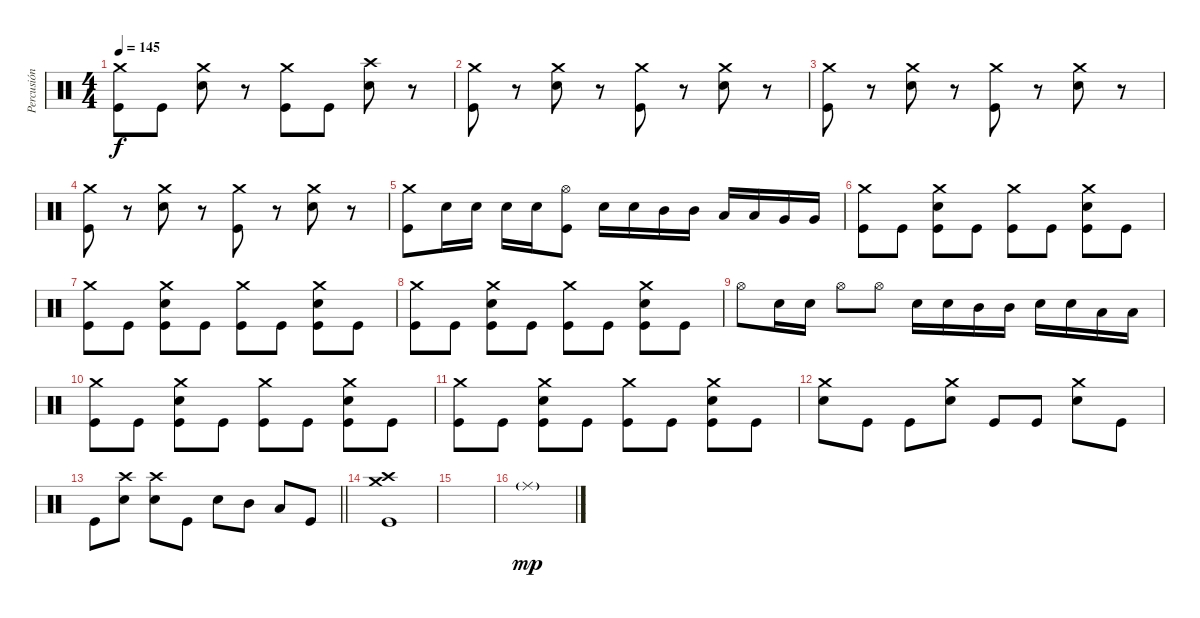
\track ("Percusión" "Percusión") {instrument percussion}
\staff {score}
\articulation defaults
\ts (4 4)
\tempo 145
\clef neutral
\ks c
("Crash medium (hit)" "Kick (hit)").8{dy f} "Kick (hit)".8 ("Crash medium (hit)" "Snare (hit) 2").8 r.8 ("Crash medium (hit)" "Kick (hit)").8 "Kick (hit)".8 ("Crash high (hit)" "Snare (hit) 2").8 r.8 |
("Crash medium (hit)" "Kick (hit)").8 r.8 ("Crash medium (hit)" "Snare (hit) 2").8 r.8 ("Crash medium (hit)" "Kick (hit)").8 r.8 ("Crash medium (hit)" "Snare (hit) 2").8 r.8 |
("Crash medium (hit)" "Kick (hit)").8 r.8 ("Crash medium (hit)" "Snare (hit) 2").8 r.8 ("Crash medium (hit)" "Kick (hit)").8 r.8 ("Crash medium (hit)" "Snare (hit) 2").8 r.8 |
("Crash medium (hit)" "Kick (hit)").8 r.8 ("Crash medium (hit)" "Snare (hit) 2").8 r.8 ("Crash medium (hit)" "Kick (hit)").8 r.8 ("Crash medium (hit)" "Snare (hit) 2").8 r.8 |
("Crash medium (hit)" "Kick (hit)").8 "Snare (hit) 2".16 "Snare (hit) 2".16 "Snare (hit) 2".16 "Snare (hit) 2".16 ("Hi-Hat (open)" "Kick (hit)").8 "Snare (hit) 2".16 "Snare (hit) 2".16 "Mid Tom (hit)".16 "Mid Tom (hit)".16 "Low Tom (hit)".16 "Low Tom (hit)".16 "Very Low Tom (hit)".16 "Very Low Tom (hit)".16 |
("Crash medium (hit)" "Kick (hit)").8 "Kick (hit)".8 ("Crash medium (hit)" "Snare (hit) 2" "Kick (hit)").8 "Kick (hit)".8 ("Crash medium (hit)" "Kick (hit)").8 "Kick (hit)".8 ("Crash medium (hit)" "Snare (hit) 2" "Kick (hit)").8 "Kick (hit)".8 |
("Crash medium (hit)" "Kick (hit)").8 "Kick (hit)".8 ("Crash medium (hit)" "Snare (hit) 2" "Kick (hit)").8 "Kick (hit)".8 ("Crash medium (hit)" "Kick (hit)").8 "Kick (hit)".8 ("Crash medium (hit)" "Snare (hit) 2" "Kick (hit)").8 "Kick (hit)".8 |
("Crash medium (hit)" "Kick (hit)").8 "Kick (hit)".8 ("Crash medium (hit)" "Snare (hit) 2" "Kick (hit)").8 "Kick (hit)".8 ("Crash medium (hit)" "Kick (hit)").8 "Kick (hit)".8 ("Crash medium (hit)" "Snare (hit) 2" "Kick (hit)").8 "Kick (hit)".8 |
"Hi-Hat (open)".8 "Snare (hit) 2".16 "Snare (hit) 2".16 "Hi-Hat (open)".8 "Hi-Hat (open)".8 "Snare (hit) 2".16 "Snare (hit) 2".16 "Mid Tom (hit)".16 "Mid Tom (hit)".16 "Snare (hit) 2".16 "Snare (hit) 2".16 "Low Tom (hit)".16 "Low Tom (hit)".16 |
("Crash medium (hit)" "Kick (hit)").8 "Kick (hit)".8 ("Crash medium (hit)" "Snare (hit) 2" "Kick (hit)").8 "Kick (hit)".8 ("Crash medium (hit)" "Kick (hit)").8 "Kick (hit)".8 ("Crash medium (hit)" "Snare (hit) 2" "Kick (hit)").8 "Kick (hit)".8 |
("Crash medium (hit)" "Kick (hit)").8 "Kick (hit)".8 ("Crash medium (hit)" "Snare (hit) 2" "Kick (hit)").8 "Kick (hit)".8 ("Crash medium (hit)" "Kick (hit)").8 "Kick (hit)".8 ("Crash medium (hit)" "Snare (hit) 2" "Kick (hit)").8 "Kick (hit)".8 |
("Crash medium (hit)" "Snare (hit) 2").8 "Kick (hit)".8 "Kick (hit)".8 ("Crash medium (hit)" "Snare (hit) 2").8 "Kick (hit)".8 "Kick (hit)".8 ("Crash medium (hit)" "Snare (hit) 2").8 "Kick (hit)".8 |
\barLineRight lightlight "Kick (hit)".8
("Crash high (hit)" "Snare (hit) 2").8 ("Crash high (hit)" "Snare (hit) 2").8 "Kick (hit)".8 "Snare (hit) 2".8 "Mid Tom (hit)".8 "Low Tom (hit)".8 "Kick (hit)".8 |
("Crash medium (hit)" "Crash high (hit)" "Kick (hit)").1 |
|
"Ride (middle)"{g}.1{dy mp}
